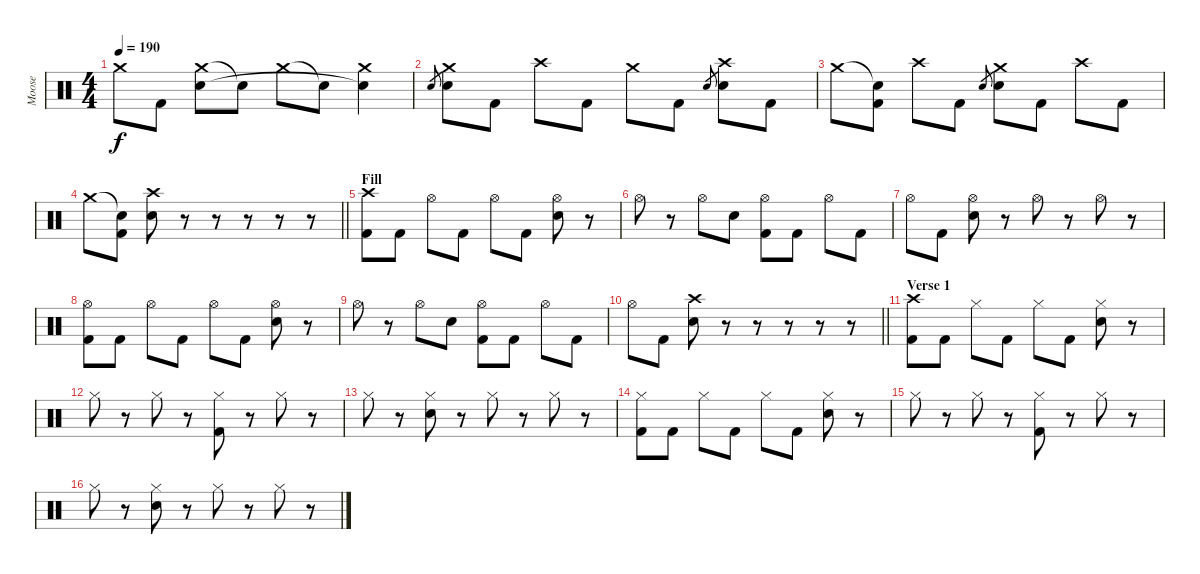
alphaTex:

\track ("Moose" "Moose") {instrument percussion}
\staff {score}
\articulation defaults
\ts (4 4)
\tempo 190
\clef neutral
\ks c "Crash medium (hit)".8{dy f} "Kick (hit) 2".8
("Crash medium (hit)" "Snare (hit) 2").8 "Snare (hit)"{t}.8 "Crash medium (hit)".8 "Snare (hit)"{t}.8 ("Crash medium (hit)" "Snare (hit)"{t}).4 |
"Snare (hit) 2".8{gr} ("Crash medium (hit)" "Snare (hit) 2").8 "Kick (hit) 2".8 "Crash high (hit)".8 "Kick (hit) 2".8 "Crash medium (hit)".8 "Kick (hit) 2".8 "Snare (hit) 2".8{gr} ("Crash high (hit)" "Snare (hit) 2").8 "Kick (hit) 2".8 |
"Crash medium (hit)".8 ("Snare (hit)"{t} "Kick (hit) 2").8 "Crash high (hit)".8 "Kick (hit) 2".8 "Snare (hit) 2".8{gr} ("Crash medium (hit)" "Snare (hit) 2").8 "Kick (hit) 2".8 "Crash high (hit)".8 "Kick (hit) 2".8 |
\barLineRight lightlight "Crash medium (hit)".8
("Snare (hit)"{t} "Kick (hit) 2").8 ("Crash high (hit)" "Snare (hit) 2").8 r.8 r.8 r.8 r.8 r.8 |
\section ("" "Fill")
("Crash high (hit)" "Kick (hit) 2").8 "Kick (hit) 2".8 "Hi-Hat (open)".8 "Kick (hit) 2".8 "Hi-Hat (open)".8 "Kick (hit) 2".8 ("Hi-Hat (open)" "Snare (hit) 2").8 r.8 |
"Hi-Hat (open)".8 r.8 "Hi-Hat (open)".8 "Snare (hit) 2".8 ("Hi-Hat (open)" "Kick (hit) 2").8 "Kick (hit) 2".8 "Hi-Hat (open)".8 "Kick (hit) 2".8 |
"Hi-Hat (open)".8 "Kick (hit) 2".8 ("Hi-Hat (open)" "Snare (hit) 2").8 r.8 "Hi-Hat (open)".8 r.8 "Hi-Hat (open)".8 r.8 |
("Hi-Hat (open)" "Kick (hit) 2").8 "Kick (hit) 2".8 "Hi-Hat (open)".8 "Kick (hit) 2".8 "Hi-Hat (open)".8 "Kick (hit) 2".8 ("Hi-Hat (open)" "Snare (hit) 2").8 r.8 |
"Hi-Hat (open)".8 r.8 "Hi-Hat (open)".8 "Snare (hit) 2".8 ("Hi-Hat (open)" "Kick (hit) 2").8 "Kick (hit) 2".8 "Hi-Hat (open)".8 "Kick (hit) 2".8 |
\barLineRight lightlight "Hi-Hat (open)".8 "Kick (hit) 2".8
("Crash high (hit)" "Snare (hit) 2").8 r.8 r.8 r.8 r.8 r.8 |
\section ("" "Verse 1")
("Crash high (hit)" "Kick (hit) 2").8 "Kick (hit) 2".8 "Hi-Hat (closed)".8 "Kick (hit) 2".8 "Hi-Hat (closed)".8 "Kick (hit) 2".8 ("Hi-Hat (closed)" "Snare (hit) 2").8 r.8 |
"Hi-Hat (closed)".8 r.8 "Hi-Hat (closed)".8 r.8 ("Hi-Hat (closed)" "Kick (hit) 2").8 r.8 "Hi-Hat (closed)".8 r.8 |
"Hi-Hat (closed)".8 r.8 ("Hi-Hat (closed)" "Snare (hit) 2").8 r.8 "Hi-Hat (closed)".8 r.8 "Hi-Hat (closed)".8 r.8 |
("Hi-Hat (closed)" "Kick (hit) 2").8 "Kick (hit) 2".8 "Hi-Hat (closed)".8 "Kick (hit) 2".8 "Hi-Hat (closed)".8 "Kick (hit) 2".8 ("Hi-Hat (closed)" "Snare (hit) 2").8 r.8 |
"Hi-Hat (closed)".8 r.8 "Hi-Hat (closed)".8 r.8 ("Hi-Hat (closed)" "Kick (hit) 2").8 r.8 "Hi-Hat (closed)".8 r.8 |
"Hi-Hat (closed)".8 r.8 ("Hi-Hat (closed)" "Snare (hit) 2").8 r.8 "Hi-Hat (closed)".8 r.8 "Hi-Hat (closed)".8 r.8
